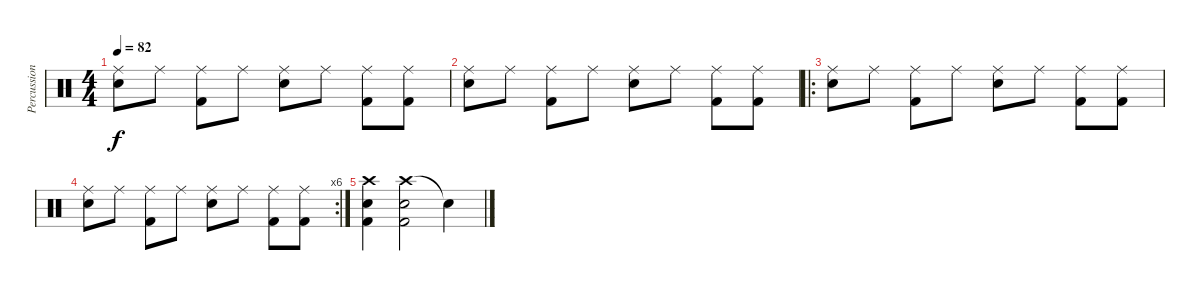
\track ("Percussions" "Percussion") {instrument percussion}
\staff {score}
\articulation defaults
\ts (4 4)
\tempo 82
\clef neutral
\ks c
("Ride (middle)" "Snare (hit) 2").8{dy f} "Ride (middle)".8 ("Ride (middle)" "Kick (hit) 2").8 "Ride (middle)".8 ("Ride (middle)" "Snare (hit) 2").8 "Ride (middle)".8 ("Ride (middle)" "Kick (hit) 2").8 ("Ride (middle)" "Kick (hit) 2").8 |
("Ride (middle)" "Snare (hit) 2").8 "Ride (middle)".8 ("Ride (middle)" "Kick (hit) 2").8 "Ride (middle)".8 ("Ride (middle)" "Snare (hit) 2").8 "Ride (middle)".8 ("Ride (middle)" "Kick (hit) 2").8 ("Ride (middle)" "Kick (hit) 2").8 |
\ro
("Ride (middle)" "Snare (hit) 2").8 "Ride (middle)".8 ("Ride (middle)" "Kick (hit) 2").8 "Ride (middle)".8 ("Ride (middle)" "Snare (hit) 2").8 "Ride (middle)".8 ("Ride (middle)" "Kick (hit) 2").8 ("Ride (middle)" "Kick (hit) 2").8 |
\rc 6
("Ride (middle)" "Snare (hit) 2").8 "Ride (middle)".8 ("Ride (middle)" "Kick (hit) 2").8 "Ride (middle)".8 ("Ride (middle)" "Snare (hit) 2").8 "Ride (middle)".8 ("Ride (middle)" "Kick (hit) 2").8 ("Ride (middle)" "Kick (hit) 2").8 |
("Crash high (hit)" "Snare (hit) 2" "Kick (hit) 2").4 ("Crash high (hit)" "Snare (hit) 2" "Kick (hit) 2").2 "Snare (hit)"{t}.4
